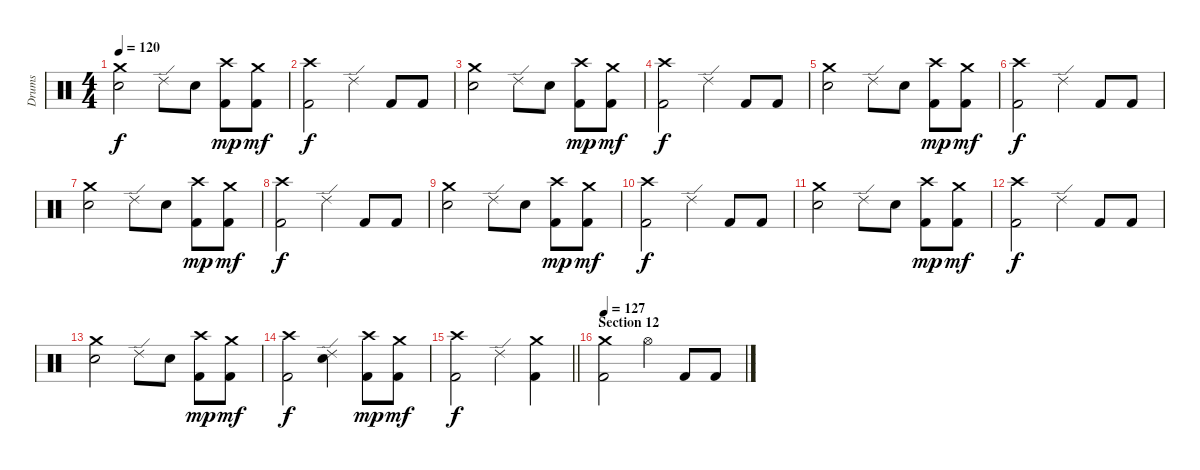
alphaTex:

\track ("Drums" "Drums") {instrument percussion}
\staff {score}
\articulation defaults
\ts (4 4)
\tempo 120
\clef neutral
\ks c
("Crash medium (hit)" "Electric Snare (hit)").2{dy f} "Ride (edge) 2".8 "Electric Snare (hit)".8 ("Crash high (hit)" "Kick (hit) 2").8{dy mp} ("Crash medium (hit)" "Kick (hit) 2").8{dy mf} |
("Crash high (hit)" "Kick (hit) 2").2{dy f} "Ride (edge) 2".4 "Kick (hit) 2".8 "Kick (hit) 2".8 |
("Crash medium (hit)" "Electric Snare (hit)").2 "Ride (edge) 2".8 "Electric Snare (hit)".8 ("Crash high (hit)" "Kick (hit) 2").8{dy mp} ("Crash medium (hit)" "Kick (hit) 2").8{dy mf} |
("Crash high (hit)" "Kick (hit) 2").2{dy f} "Ride (edge) 2".4 "Kick (hit) 2".8 "Kick (hit) 2".8 |
("Crash medium (hit)" "Electric Snare (hit)").2 "Ride (edge) 2".8 "Electric Snare (hit)".8 ("Crash high (hit)" "Kick (hit) 2").8{dy mp} ("Crash medium (hit)" "Kick (hit) 2").8{dy mf} |
("Crash high (hit)" "Kick (hit) 2").2{dy f} "Ride (edge) 2".4 "Kick (hit) 2".8 "Kick (hit) 2".8 |
("Crash medium (hit)" "Electric Snare (hit)").2 "Ride (edge) 2".8 "Electric Snare (hit)".8 ("Crash high (hit)" "Kick (hit) 2").8{dy mp} ("Crash medium (hit)" "Kick (hit) 2").8{dy mf} |
("Crash high (hit)" "Kick (hit) 2").2{dy f} "Ride (edge) 2".4 "Kick (hit) 2".8 "Kick (hit) 2".8 |
("Crash medium (hit)" "Electric Snare (hit)").2 "Ride (edge) 2".8 "Electric Snare (hit)".8 ("Crash high (hit)" "Kick (hit) 2").8{dy mp} ("Crash medium (hit)" "Kick (hit) 2").8{dy mf} |
("Crash high (hit)" "Kick (hit) 2").2{dy f} "Ride (edge) 2".4 "Kick (hit) 2".8 "Kick (hit) 2".8 |
("Crash medium (hit)" "Electric Snare (hit)").2 "Ride (edge) 2".8 "Electric Snare (hit)".8 ("Crash high (hit)" "Kick (hit) 2").8{dy mp} ("Crash medium (hit)" "Kick (hit) 2").8{dy mf} |
("Crash high (hit)" "Kick (hit) 2").2{dy f} "Ride (edge) 2".4 "Kick (hit) 2".8 "Kick (hit) 2".8 |
("Crash medium (hit)" "Electric Snare (hit)").2 "Ride (edge) 2".8 "Electric Snare (hit)".8 ("Crash high (hit)" "Kick (hit) 2").8{dy mp} ("Crash medium (hit)" "Kick (hit) 2").8{dy mf} |
("Crash high (hit)" "Kick (hit) 2").2{dy f} ("Ride (edge) 2" "Electric Snare (hit)").4 ("Crash high (hit)" "Kick (hit) 2").8{dy mp} ("Crash medium (hit)" "Kick (hit) 2").8{dy mf} |
\barLineRight lightlight
("Crash high (hit)" "Kick (hit) 2").2{dy f} "Ride (edge) 2".4 ("Crash medium (hit)" "Kick (hit) 2").4 |
\section ("" "Section 12")
\tempo 127
("Crash medium (hit)" "Kick (hit) 2").2 "Hi-Hat (open)".4 "Kick (hit) 2".8 "Kick (hit) 2".8
